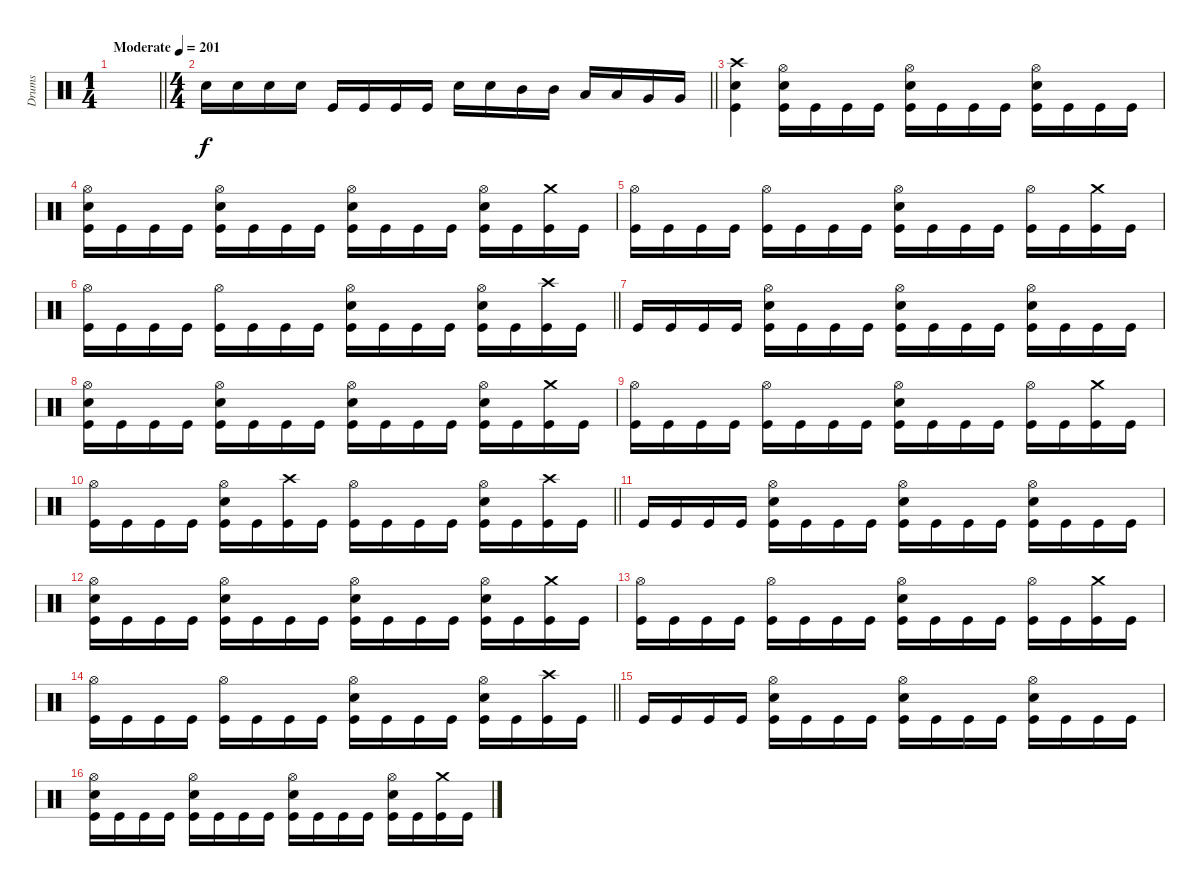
\track ("Drums" "Drums") {instrument percussion}
\staff
\articulation defaults
\ts (1 4)
\tempo (201 "Moderate")
\clef neutral
\barLineRight lightlight
\ks c
|
\ts (4 4)
\barLineRight lightlight "Electric Snare (hit)".16 "Electric Snare (hit)".16 "Electric Snare (hit)".16 "Electric Snare (hit)".16 "Kick (hit)".16 "Kick (hit)".16 "Kick (hit)".16 "Kick (hit)".16 "Electric Snare (hit)".16 "Electric Snare (hit)".16 "Mid Tom (hit)".16 "Mid Tom (hit)".16 "Low Tom (hit)".16 "Low Tom (hit)".16 "Very Low Tom (hit)".16 "Very Low Tom (hit)".16
|
("Crash high (hit)" "Electric Snare (hit)" "Kick (hit)").4 ("Hi-Hat (open)" "Electric Snare (hit)" "Kick (hit)").16 "Kick (hit)".16 "Kick (hit)".16 "Kick (hit)".16 ("Hi-Hat (open)" "Electric Snare (hit)" "Kick (hit)").16 "Kick (hit)".16 "Kick (hit)".16 "Kick (hit)".16 ("Hi-Hat (open)" "Electric Snare (hit)" "Kick (hit)").16 "Kick (hit)".16 "Kick (hit)".16 "Kick (hit)".16 |
("Hi-Hat (open)" "Electric Snare (hit)" "Kick (hit)").16 "Kick (hit)".16 "Kick (hit)".16 "Kick (hit)".16 ("Hi-Hat (open)" "Electric Snare (hit)" "Kick (hit)").16 "Kick (hit)".16 "Kick (hit)".16 "Kick (hit)".16 ("Hi-Hat (open)" "Electric Snare (hit)" "Kick (hit)").16 "Kick (hit)".16 "Kick (hit)".16 "Kick (hit)".16 ("Hi-Hat (open)" "Electric Snare (hit)" "Kick (hit)").16 "Kick (hit)".16 ("Crash medium (hit)" "Kick (hit)").16 "Kick (hit)".16 |
("Hi-Hat (open)" "Kick (hit)").16 "Kick (hit)".16 "Kick (hit)".16 "Kick (hit)".16 ("Hi-Hat (open)" "Kick (hit)").16 "Kick (hit)".16 "Kick (hit)".16 "Kick (hit)".16 ("Hi-Hat (open)" "Electric Snare (hit)" "Kick (hit)").16 "Kick (hit)".16 "Kick (hit)".16 "Kick (hit)".16 ("Hi-Hat (open)" "Kick (hit)").16 "Kick (hit)".16 ("Crash medium (hit)" "Kick (hit)").16 "Kick (hit)".16 |
\barLineRight lightlight
("Hi-Hat (open)" "Kick (hit)").16 "Kick (hit)".16 "Kick (hit)".16 "Kick (hit)".16 ("Hi-Hat (open)" "Kick (hit)").16 "Kick (hit)".16 "Kick (hit)".16 "Kick (hit)".16 ("Hi-Hat (open)" "Electric Snare (hit)" "Kick (hit)").16 "Kick (hit)".16 "Kick (hit)".16 "Kick (hit)".16 ("Hi-Hat (open)" "Electric Snare (hit)" "Kick (hit)").16 "Kick (hit)".16 ("Crash high (hit)" "Kick (hit)").16 "Kick (hit)".16 |
"Kick (hit)".16 "Kick (hit)".16 "Kick (hit)".16 "Kick (hit)".16 ("Hi-Hat (open)" "Electric Snare (hit)" "Kick (hit)").16 "Kick (hit)".16 "Kick (hit)".16 "Kick (hit)".16 ("Hi-Hat (open)" "Electric Snare (hit)" "Kick (hit)").16 "Kick (hit)".16 "Kick (hit)".16 "Kick (hit)".16 ("Hi-Hat (open)" "Electric Snare (hit)" "Kick (hit)").16 "Kick (hit)".16 "Kick (hit)".16 "Kick (hit)".16 |
("Hi-Hat (open)" "Electric Snare (hit)" "Kick (hit)").16 "Kick (hit)".16 "Kick (hit)".16 "Kick (hit)".16 ("Hi-Hat (open)" "Electric Snare (hit)" "Kick (hit)").16 "Kick (hit)".16 "Kick (hit)".16 "Kick (hit)".16 ("Hi-Hat (open)" "Electric Snare (hit)" "Kick (hit)").16 "Kick (hit)".16 "Kick (hit)".16 "Kick (hit)".16 ("Hi-Hat (open)" "Electric Snare (hit)" "Kick (hit)").16 "Kick (hit)".16 ("Crash medium (hit)" "Kick (hit)").16 "Kick (hit)".16 |
("Hi-Hat (open)" "Kick (hit)").16 "Kick (hit)".16 "Kick (hit)".16 "Kick (hit)".16 ("Hi-Hat (open)" "Kick (hit)").16 "Kick (hit)".16 "Kick (hit)".16 "Kick (hit)".16 ("Hi-Hat (open)" "Electric Snare (hit)" "Kick (hit)").16 "Kick (hit)".16 "Kick (hit)".16 "Kick (hit)".16 ("Hi-Hat (open)" "Kick (hit)").16 "Kick (hit)".16 ("Crash medium (hit)" "Kick (hit)").16 "Kick (hit)".16 |
\barLineRight lightlight
("Hi-Hat (open)" "Kick (hit)").16 "Kick (hit)".16 "Kick (hit)".16 "Kick (hit)".16 ("Hi-Hat (open)" "Electric Snare (hit)" "Kick (hit)").16 "Kick (hit)".16 ("Crash high (hit)" "Kick (hit)").16 "Kick (hit)".16 ("Hi-Hat (open)" "Kick (hit)").16 "Kick (hit)".16 "Kick (hit)".16 "Kick (hit)".16 ("Hi-Hat (open)" "Electric Snare (hit)" "Kick (hit)").16 "Kick (hit)".16 ("Crash high (hit)" "Kick (hit)").16 "Kick (hit)".16 |
"Kick (hit)".16 "Kick (hit)".16 "Kick (hit)".16 "Kick (hit)".16 ("Hi-Hat (open)" "Electric Snare (hit)" "Kick (hit)").16 "Kick (hit)".16 "Kick (hit)".16 "Kick (hit)".16 ("Hi-Hat (open)" "Electric Snare (hit)" "Kick (hit)").16 "Kick (hit)".16 "Kick (hit)".16 "Kick (hit)".16 ("Hi-Hat (open)" "Electric Snare (hit)" "Kick (hit)").16 "Kick (hit)".16 "Kick (hit)".16 "Kick (hit)".16 |
("Hi-Hat (open)" "Electric Snare (hit)" "Kick (hit)").16 "Kick (hit)".16 "Kick (hit)".16 "Kick (hit)".16 ("Hi-Hat (open)" "Electric Snare (hit)" "Kick (hit)").16 "Kick (hit)".16 "Kick (hit)".16 "Kick (hit)".16 ("Hi-Hat (open)" "Electric Snare (hit)" "Kick (hit)").16 "Kick (hit)".16 "Kick (hit)".16 "Kick (hit)".16 ("Hi-Hat (open)" "Electric Snare (hit)" "Kick (hit)").16 "Kick (hit)".16 ("Crash medium (hit)" "Kick (hit)").16 "Kick (hit)".16 |
("Hi-Hat (open)" "Kick (hit)").16 "Kick (hit)".16 "Kick (hit)".16 "Kick (hit)".16 ("Hi-Hat (open)" "Kick (hit)").16 "Kick (hit)".16 "Kick (hit)".16 "Kick (hit)".16 ("Hi-Hat (open)" "Electric Snare (hit)" "Kick (hit)").16 "Kick (hit)".16 "Kick (hit)".16 "Kick (hit)".16 ("Hi-Hat (open)" "Kick (hit)").16 "Kick (hit)".16 ("Crash medium (hit)" "Kick (hit)").16 "Kick (hit)".16 |
\barLineRight lightlight
("Hi-Hat (open)" "Kick (hit)").16 "Kick (hit)".16 "Kick (hit)".16 "Kick (hit)".16 ("Hi-Hat (open)" "Kick (hit)").16 "Kick (hit)".16 "Kick (hit)".16 "Kick (hit)".16 ("Hi-Hat (open)" "Electric Snare (hit)" "Kick (hit)").16 "Kick (hit)".16 "Kick (hit)".16 "Kick (hit)".16 ("Hi-Hat (open)" "Electric Snare (hit)" "Kick (hit)").16 "Kick (hit)".16 ("Crash high (hit)" "Kick (hit)").16 "Kick (hit)".16 |
"Kick (hit)".16 "Kick (hit)".16 "Kick (hit)".16 "Kick (hit)".16 ("Hi-Hat (open)" "Electric Snare (hit)" "Kick (hit)").16 "Kick (hit)".16 "Kick (hit)".16 "Kick (hit)".16 ("Hi-Hat (open)" "Electric Snare (hit)" "Kick (hit)").16 "Kick (hit)".16 "Kick (hit)".16 "Kick (hit)".16 ("Hi-Hat (open)" "Electric Snare (hit)" "Kick (hit)").16 "Kick (hit)".16 "Kick (hit)".16 "Kick (hit)".16 |
("Hi-Hat (open)" "Electric Snare (hit)" "Kick (hit)").16 "Kick (hit)".16 "Kick (hit)".16 "Kick (hit)".16 ("Hi-Hat (open)" "Electric Snare (hit)" "Kick (hit)").16 "Kick (hit)".16 "Kick (hit)".16 "Kick (hit)".16 ("Hi-Hat (open)" "Electric Snare (hit)" "Kick (hit)").16 "Kick (hit)".16 "Kick (hit)".16 "Kick (hit)".16 ("Hi-Hat (open)" "Electric Snare (hit)" "Kick (hit)").16 "Kick (hit)".16 ("Crash medium (hit)" "Kick (hit)").16 "Kick (hit)".16
